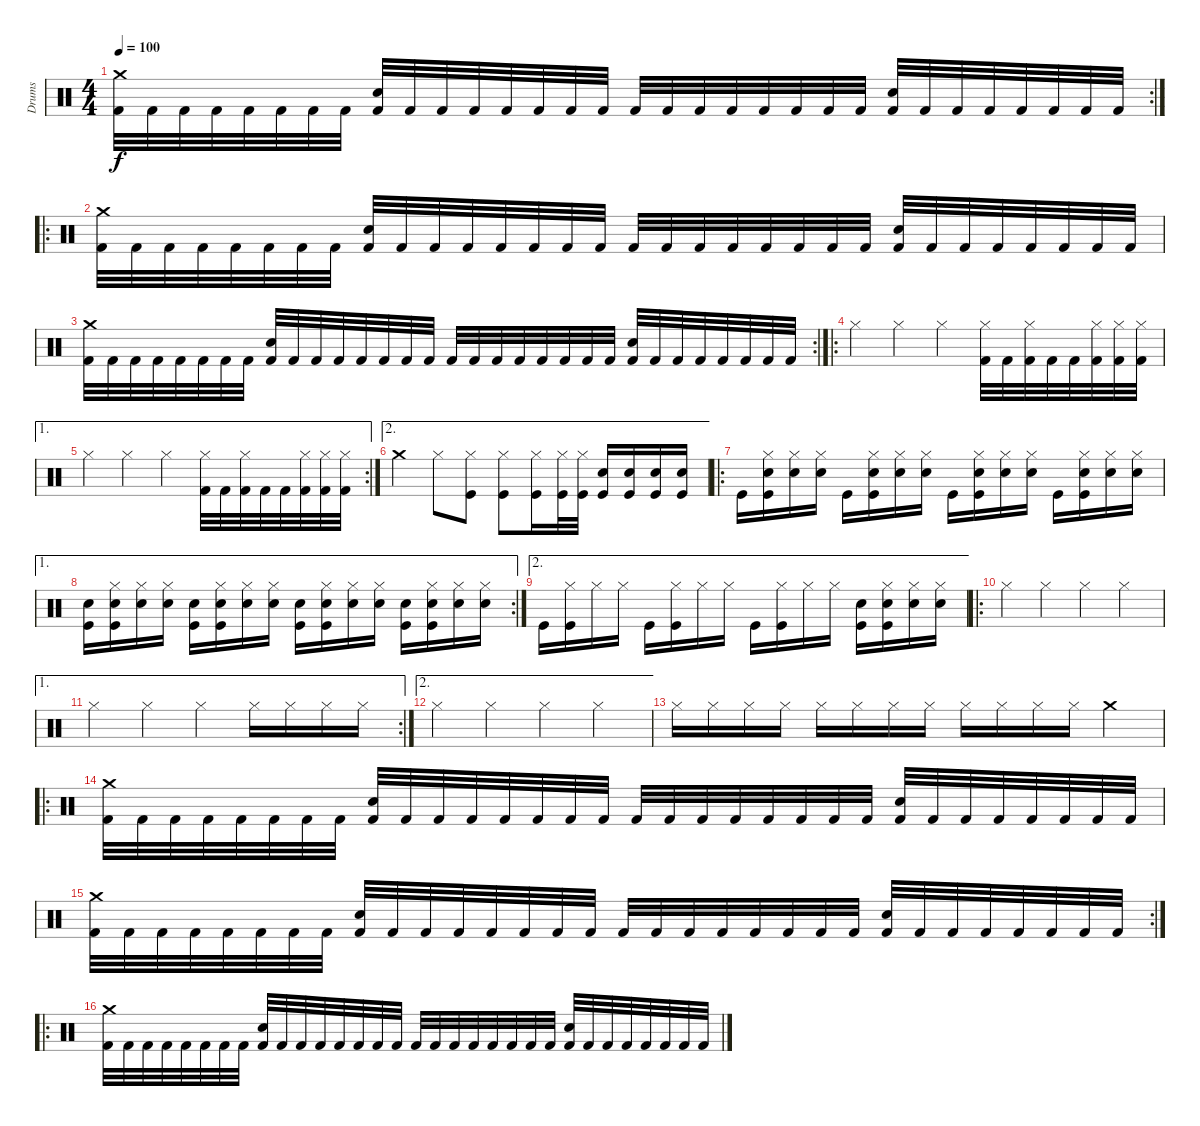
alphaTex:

\track ("Drums" "Drums") {instrument percussion}
\staff {score}
\articulation defaults
\rc 2
\ts (4 4)
\tempo 100
\clef neutral
\ks c
("Crash medium (hit)" "Kick (hit) 2").32{dy f} "Kick (hit) 2".32 "Kick (hit) 2".32 "Kick (hit) 2".32 "Kick (hit) 2".32 "Kick (hit) 2".32 "Kick (hit) 2".32 "Kick (hit) 2".32 ("Snare (hit) 2" "Kick (hit) 2").32 "Kick (hit) 2".32 "Kick (hit) 2".32 "Kick (hit) 2".32 "Kick (hit) 2".32 "Kick (hit) 2".32 "Kick (hit) 2".32 "Kick (hit) 2".32 "Kick (hit) 2".32 "Kick (hit) 2".32 "Kick (hit) 2".32 "Kick (hit) 2".32 "Kick (hit) 2".32 "Kick (hit) 2".32 "Kick (hit) 2".32 "Kick (hit) 2".32 ("Snare (hit) 2" "Kick (hit) 2").32 "Kick (hit) 2".32 "Kick (hit) 2".32 "Kick (hit) 2".32 "Kick (hit) 2".32 "Kick (hit) 2".32 "Kick (hit) 2".32 "Kick (hit) 2".32 |
\ro
("Crash medium (hit)" "Kick (hit) 2").32 "Kick (hit) 2".32 "Kick (hit) 2".32 "Kick (hit) 2".32 "Kick (hit) 2".32 "Kick (hit) 2".32 "Kick (hit) 2".32 "Kick (hit) 2".32 ("Snare (hit) 2" "Kick (hit) 2").32 "Kick (hit) 2".32 "Kick (hit) 2".32 "Kick (hit) 2".32 "Kick (hit) 2".32 "Kick (hit) 2".32 "Kick (hit) 2".32 "Kick (hit) 2".32 "Kick (hit) 2".32 "Kick (hit) 2".32 "Kick (hit) 2".32 "Kick (hit) 2".32 "Kick (hit) 2".32 "Kick (hit) 2".32 "Kick (hit) 2".32 "Kick (hit) 2".32 ("Snare (hit) 2" "Kick (hit) 2").32 "Kick (hit) 2".32 "Kick (hit) 2".32 "Kick (hit) 2".32 "Kick (hit) 2".32 "Kick (hit) 2".32 "Kick (hit) 2".32 "Kick (hit) 2".32 |
\rc 2
("Crash medium (hit)" "Kick (hit) 2").32 "Kick (hit) 2".32 "Kick (hit) 2".32 "Kick (hit) 2".32 "Kick (hit) 2".32 "Kick (hit) 2".32 "Kick (hit) 2".32 "Kick (hit) 2".32 ("Snare (hit) 2" "Kick (hit) 2").32 "Kick (hit) 2".32 "Kick (hit) 2".32 "Kick (hit) 2".32 "Kick (hit) 2".32 "Kick (hit) 2".32 "Kick (hit) 2".32 "Kick (hit) 2".32 "Kick (hit) 2".32 "Kick (hit) 2".32 "Kick (hit) 2".32 "Kick (hit) 2".32 "Kick (hit) 2".32 "Kick (hit) 2".32 "Kick (hit) 2".32 "Kick (hit) 2".32 ("Snare (hit) 2" "Kick (hit) 2").32 "Kick (hit) 2".32 "Kick (hit) 2".32 "Kick (hit) 2".32 "Kick (hit) 2".32 "Kick (hit) 2".32 "Kick (hit) 2".32 "Kick (hit) 2".32 |
\ro "Hi-Hat (closed)".4 "Hi-Hat (closed)".4 "Hi-Hat (closed)".4
("Hi-Hat (closed)" "Kick (hit) 2").32 "Kick (hit) 2".32 ("Hi-Hat (closed)" "Kick (hit) 2").32 "Kick (hit) 2".32 "Kick (hit) 2".32 ("Hi-Hat (closed)" "Kick (hit) 2").32 ("Hi-Hat (closed)" "Kick (hit) 2").32 ("Hi-Hat (closed)" "Kick (hit) 2").32 |
\ae 1
\rc 2 "Hi-Hat (closed)".4 "Hi-Hat (closed)".4 "Hi-Hat (closed)".4
("Hi-Hat (closed)" "Kick (hit) 2").32 "Kick (hit) 2".32 ("Hi-Hat (closed)" "Kick (hit) 2").32 "Kick (hit) 2".32 "Kick (hit) 2".32 ("Hi-Hat (closed)" "Kick (hit) 2").32 ("Hi-Hat (closed)" "Kick (hit) 2").32 ("Hi-Hat (closed)" "Kick (hit) 2").32 |
\ae 2 "Crash medium (hit)".4 "Hi-Hat (closed)".8
("Hi-Hat (closed)" "Kick (hit)").8 ("Hi-Hat (closed)" "Kick (hit)").8 ("Hi-Hat (closed)" "Kick (hit)").16 ("Hi-Hat (closed)" "Kick (hit)").32 ("Hi-Hat (closed)" "Kick (hit)").32 ("Snare (hit) 2" "Kick (hit)").16 ("Snare (hit) 2" "Kick (hit)").16 ("Snare (hit) 2" "Kick (hit)").16 ("Snare (hit) 2" "Kick (hit)").16 |
\ro "Kick (hit)".16
("Snare (hit) 2" "Hi-Hat (closed)" "Kick (hit)").16 ("Snare (hit) 2" "Hi-Hat (closed)").16 ("Snare (hit) 2" "Hi-Hat (closed)").16 "Kick (hit)".16 ("Snare (hit) 2" "Hi-Hat (closed)" "Kick (hit)").16 ("Snare (hit) 2" "Hi-Hat (closed)").16 ("Snare (hit) 2" "Hi-Hat (closed)").16 "Kick (hit)".16 ("Snare (hit) 2" "Hi-Hat (closed)" "Kick (hit)").16 ("Snare (hit) 2" "Hi-Hat (closed)").16 ("Snare (hit) 2" "Hi-Hat (closed)").16 "Kick (hit)".16 ("Snare (hit) 2" "Hi-Hat (closed)" "Kick (hit)").16 ("Snare (hit) 2" "Hi-Hat (closed)").16 ("Snare (hit) 2" "Hi-Hat (closed)").16 |
\ae 1
\rc 2
("Snare (hit) 2" "Kick (hit)").16 ("Snare (hit) 2" "Hi-Hat (closed)" "Kick (hit)").16 ("Snare (hit) 2" "Hi-Hat (closed)").16 ("Snare (hit) 2" "Hi-Hat (closed)").16 ("Snare (hit) 2" "Kick (hit)").16 ("Snare (hit) 2" "Hi-Hat (closed)" "Kick (hit)").16 ("Snare (hit) 2" "Hi-Hat (closed)").16 ("Snare (hit) 2" "Hi-Hat (closed)").16 ("Snare (hit) 2" "Kick (hit)").16 ("Snare (hit) 2" "Hi-Hat (closed)" "Kick (hit)").16 ("Snare (hit) 2" "Hi-Hat (closed)").16 ("Snare (hit) 2" "Hi-Hat (closed)").16 ("Snare (hit) 2" "Kick (hit)").16 ("Snare (hit) 2" "Hi-Hat (closed)" "Kick (hit)").16 ("Snare (hit) 2" "Hi-Hat (closed)").16 ("Snare (hit) 2" "Hi-Hat (closed)").16 |
\ae 2 "Kick (hit)".16
("Hi-Hat (closed)" "Kick (hit)").16 "Hi-Hat (closed)".16 "Hi-Hat (closed)".16 "Kick (hit)".16 ("Hi-Hat (closed)" "Kick (hit)").16 "Hi-Hat (closed)".16 "Hi-Hat (closed)".16 "Kick (hit)".16 ("Hi-Hat (closed)" "Kick (hit)").16 "Hi-Hat (closed)".16 "Hi-Hat (closed)".16 ("Snare (hit) 2" "Kick (hit)").16 ("Snare (hit) 2" "Hi-Hat (closed)" "Kick (hit)").16 ("Snare (hit) 2" "Hi-Hat (closed)").16 ("Snare (hit) 2" "Hi-Hat (closed)").16 |
\ro "Hi-Hat (closed)".4 "Hi-Hat (closed)".4 "Hi-Hat (closed)".4 "Hi-Hat (closed)".4
|
\ae 1
\rc 2 "Hi-Hat (closed)".4 "Hi-Hat (closed)".4 "Hi-Hat (closed)".4 "Hi-Hat (closed)".16 "Hi-Hat (closed)".16 "Hi-Hat (closed)".16 "Hi-Hat (closed)".16
|
\ae 2 "Hi-Hat (closed)".4 "Hi-Hat (closed)".4 "Hi-Hat (closed)".4 "Hi-Hat (closed)".4
|
"Hi-Hat (closed)".16 "Hi-Hat (closed)".16 "Hi-Hat (closed)".16 "Hi-Hat (closed)".16 "Hi-Hat (closed)".16 "Hi-Hat (closed)".16 "Hi-Hat (closed)".16 "Hi-Hat (closed)".16 "Hi-Hat (closed)".16 "Hi-Hat (closed)".16 "Hi-Hat (closed)".16 "Hi-Hat (closed)".16 "Crash medium (hit)".4 |
\ro
("Crash medium (hit)" "Kick (hit) 2").32 "Kick (hit) 2".32 "Kick (hit) 2".32 "Kick (hit) 2".32 "Kick (hit) 2".32 "Kick (hit) 2".32 "Kick (hit) 2".32 "Kick (hit) 2".32 ("Snare (hit) 2" "Kick (hit) 2").32 "Kick (hit) 2".32 "Kick (hit) 2".32 "Kick (hit) 2".32 "Kick (hit) 2".32 "Kick (hit) 2".32 "Kick (hit) 2".32 "Kick (hit) 2".32 "Kick (hit) 2".32 "Kick (hit) 2".32 "Kick (hit) 2".32 "Kick (hit) 2".32 "Kick (hit) 2".32 "Kick (hit) 2".32 "Kick (hit) 2".32 "Kick (hit) 2".32 ("Snare (hit) 2" "Kick (hit) 2").32 "Kick (hit) 2".32 "Kick (hit) 2".32 "Kick (hit) 2".32 "Kick (hit) 2".32 "Kick (hit) 2".32 "Kick (hit) 2".32 "Kick (hit) 2".32 |
\rc 2
("Crash medium (hit)" "Kick (hit) 2").32 "Kick (hit) 2".32 "Kick (hit) 2".32 "Kick (hit) 2".32 "Kick (hit) 2".32 "Kick (hit) 2".32 "Kick (hit) 2".32 "Kick (hit) 2".32 ("Snare (hit) 2" "Kick (hit) 2").32 "Kick (hit) 2".32 "Kick (hit) 2".32 "Kick (hit) 2".32 "Kick (hit) 2".32 "Kick (hit) 2".32 "Kick (hit) 2".32 "Kick (hit) 2".32 "Kick (hit) 2".32 "Kick (hit) 2".32 "Kick (hit) 2".32 "Kick (hit) 2".32 "Kick (hit) 2".32 "Kick (hit) 2".32 "Kick (hit) 2".32 "Kick (hit) 2".32 ("Snare (hit) 2" "Kick (hit) 2").32 "Kick (hit) 2".32 "Kick (hit) 2".32 "Kick (hit) 2".32 "Kick (hit) 2".32 "Kick (hit) 2".32 "Kick (hit) 2".32 "Kick (hit) 2".32 |
\ro
("Crash medium (hit)" "Kick (hit) 2").32 "Kick (hit) 2".32 "Kick (hit) 2".32 "Kick (hit) 2".32 "Kick (hit) 2".32 "Kick (hit) 2".32 "Kick (hit) 2".32 "Kick (hit) 2".32 ("Snare (hit) 2" "Kick (hit) 2").32 "Kick (hit) 2".32 "Kick (hit) 2".32 "Kick (hit) 2".32 "Kick (hit) 2".32 "Kick (hit) 2".32 "Kick (hit) 2".32 "Kick (hit) 2".32 "Kick (hit) 2".32 "Kick (hit) 2".32 "Kick (hit) 2".32 "Kick (hit) 2".32 "Kick (hit) 2".32 "Kick (hit) 2".32 "Kick (hit) 2".32 "Kick (hit) 2".32 ("Snare (hit) 2" "Kick (hit) 2").32 "Kick (hit) 2".32 "Kick (hit) 2".32 "Kick (hit) 2".32 "Kick (hit) 2".32 "Kick (hit) 2".32 "Kick (hit) 2".32 "Kick (hit) 2".32
